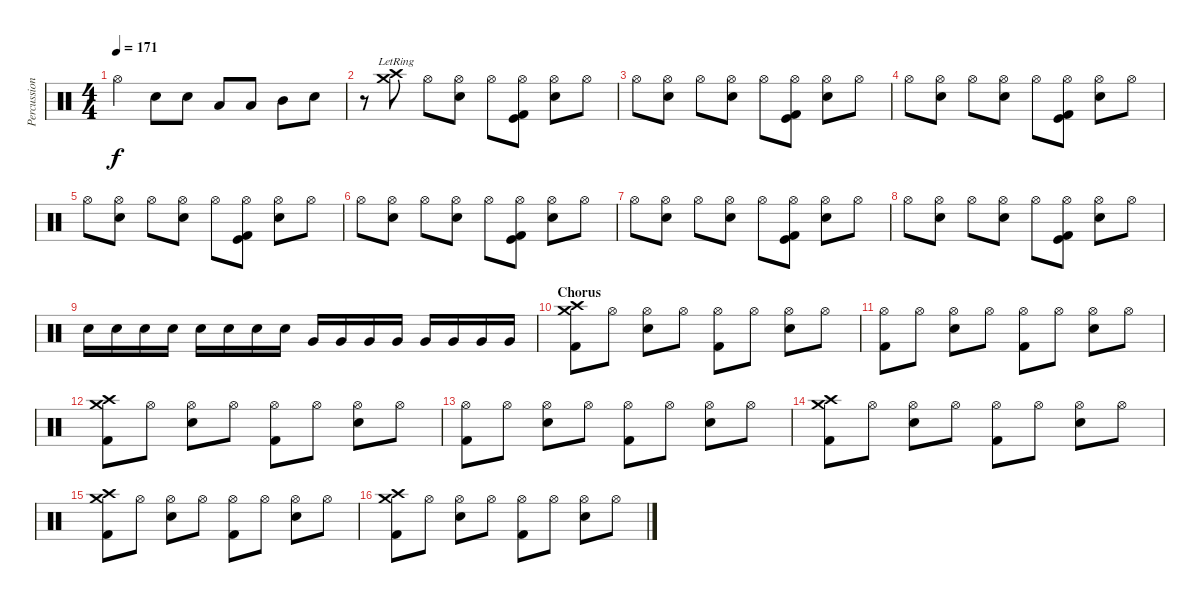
\track ("Percussion" "Percussion") {instrument percussion}
\staff {score}
\articulation defaults
\ts (4 4)
\tempo 171
\clef neutral
\ks c "Hi-Hat (open)".4{dy f} "Snare (hit) 2".8 "Snare (hit) 2".8 "Low Floor Tom (hit)".8 "Low Floor Tom (hit)".8 "Mid Tom (hit)".8 "Snare (hit) 2".8
|
r.8 ("Crash medium (hit)"{lr} "Crash high (hit)"{lr}).8 "Hi-Hat (open)".8 ("Hi-Hat (open)" "Snare (hit) 2").8 "Hi-Hat (open)".8 ("Hi-Hat (open)" "Kick (hit)" "Kick (hit) 2").8 ("Hi-Hat (open)" "Snare (hit) 2").8 "Hi-Hat (open)".8 |
"Hi-Hat (open)".8 ("Hi-Hat (open)" "Snare (hit) 2").8 "Hi-Hat (open)".8 ("Hi-Hat (open)" "Snare (hit) 2").8 "Hi-Hat (open)".8 ("Hi-Hat (open)" "Kick (hit)" "Kick (hit) 2").8 ("Hi-Hat (open)" "Snare (hit) 2").8 "Hi-Hat (open)".8 |
"Hi-Hat (open)".8 ("Hi-Hat (open)" "Snare (hit) 2").8 "Hi-Hat (open)".8 ("Hi-Hat (open)" "Snare (hit) 2").8 "Hi-Hat (open)".8 ("Hi-Hat (open)" "Kick (hit)" "Kick (hit) 2").8 ("Hi-Hat (open)" "Snare (hit) 2").8 "Hi-Hat (open)".8 |
"Hi-Hat (open)".8 ("Hi-Hat (open)" "Snare (hit) 2").8 "Hi-Hat (open)".8 ("Hi-Hat (open)" "Snare (hit) 2").8 "Hi-Hat (open)".8 ("Hi-Hat (open)" "Kick (hit)" "Kick (hit) 2").8 ("Hi-Hat (open)" "Snare (hit) 2").8 "Hi-Hat (open)".8 |
"Hi-Hat (open)".8 ("Hi-Hat (open)" "Snare (hit) 2").8 "Hi-Hat (open)".8 ("Hi-Hat (open)" "Snare (hit) 2").8 "Hi-Hat (open)".8 ("Hi-Hat (open)" "Kick (hit)" "Kick (hit) 2").8 ("Hi-Hat (open)" "Snare (hit) 2").8 "Hi-Hat (open)".8 |
"Hi-Hat (open)".8 ("Hi-Hat (open)" "Snare (hit) 2").8 "Hi-Hat (open)".8 ("Hi-Hat (open)" "Snare (hit) 2").8 "Hi-Hat (open)".8 ("Hi-Hat (open)" "Kick (hit)" "Kick (hit) 2").8 ("Hi-Hat (open)" "Snare (hit) 2").8 "Hi-Hat (open)".8 |
"Hi-Hat (open)".8 ("Hi-Hat (open)" "Snare (hit) 2").8 "Hi-Hat (open)".8 ("Hi-Hat (open)" "Snare (hit) 2").8 "Hi-Hat (open)".8 ("Hi-Hat (open)" "Kick (hit)" "Kick (hit) 2").8 ("Hi-Hat (open)" "Snare (hit) 2").8 "Hi-Hat (open)".8 |
"Snare (hit) 2".16 "Snare (hit) 2".16 "Snare (hit) 2".16 "Snare (hit) 2".16 "Snare (hit) 2".16 "Snare (hit) 2".16 "Snare (hit) 2".16 "Snare (hit) 2".16 "Very Low Tom (hit)".16 "Very Low Tom (hit)".16 "Very Low Tom (hit)".16 "Very Low Tom (hit)".16 "Very Low Tom (hit)".16 "Very Low Tom (hit)".16 "Very Low Tom (hit)".16 "Very Low Tom (hit)".16 |
\section ("" "Chorus")
("Crash high (hit)" "Crash medium (hit)" "Kick (hit) 2").8 "Hi-Hat (open)".8 ("Hi-Hat (open)" "Snare (hit) 2").8 "Hi-Hat (open)".8 ("Hi-Hat (open)" "Kick (hit) 2").8 "Hi-Hat (open)".8 ("Hi-Hat (open)" "Snare (hit) 2").8 "Hi-Hat (open)".8 |
("Hi-Hat (open)" "Kick (hit) 2").8 "Hi-Hat (open)".8 ("Hi-Hat (open)" "Snare (hit) 2").8 "Hi-Hat (open)".8 ("Hi-Hat (open)" "Kick (hit) 2").8 "Hi-Hat (open)".8 ("Hi-Hat (open)" "Snare (hit) 2").8 "Hi-Hat (open)".8 |
("Crash high (hit)" "Crash medium (hit)" "Kick (hit) 2").8 "Hi-Hat (open)".8 ("Hi-Hat (open)" "Snare (hit) 2").8 "Hi-Hat (open)".8 ("Hi-Hat (open)" "Kick (hit) 2").8 "Hi-Hat (open)".8 ("Hi-Hat (open)" "Snare (hit) 2").8 "Hi-Hat (open)".8 |
("Hi-Hat (open)" "Kick (hit) 2").8 "Hi-Hat (open)".8 ("Hi-Hat (open)" "Snare (hit) 2").8 "Hi-Hat (open)".8 ("Hi-Hat (open)" "Kick (hit) 2").8 "Hi-Hat (open)".8 ("Hi-Hat (open)" "Snare (hit) 2").8 "Hi-Hat (open)".8 |
("Crash high (hit)" "Crash medium (hit)" "Kick (hit) 2").8 "Hi-Hat (open)".8 ("Hi-Hat (open)" "Snare (hit) 2").8 "Hi-Hat (open)".8 ("Hi-Hat (open)" "Kick (hit) 2").8 "Hi-Hat (open)".8 ("Hi-Hat (open)" "Snare (hit) 2").8 "Hi-Hat (open)".8 |
("Crash high (hit)" "Crash medium (hit)" "Kick (hit) 2").8 "Hi-Hat (open)".8 ("Hi-Hat (open)" "Snare (hit) 2").8 "Hi-Hat (open)".8 ("Hi-Hat (open)" "Kick (hit) 2").8 "Hi-Hat (open)".8 ("Hi-Hat (open)" "Snare (hit) 2").8 "Hi-Hat (open)".8 |
("Crash high (hit)" "Crash medium (hit)" "Kick (hit) 2").8 "Hi-Hat (open)".8 ("Hi-Hat (open)" "Snare (hit) 2").8 "Hi-Hat (open)".8 ("Hi-Hat (open)" "Kick (hit) 2").8 "Hi-Hat (open)".8 ("Hi-Hat (open)" "Snare (hit) 2").8 "Hi-Hat (open)".8
